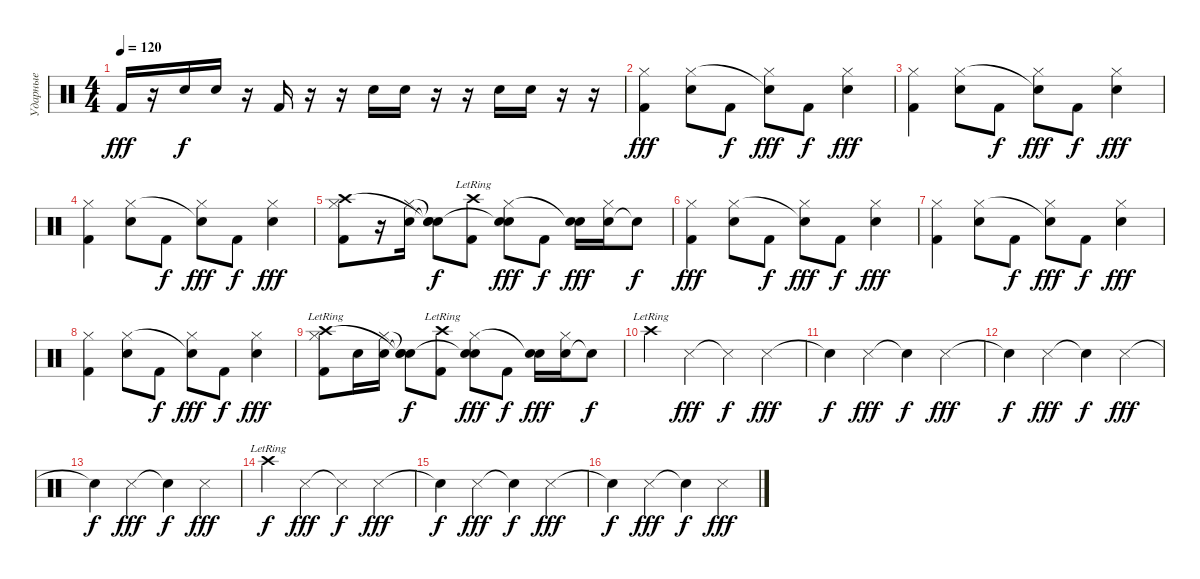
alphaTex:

\track ("Ударные" "Ударные") {instrument percussion}
\staff {score}
\articulation defaults
\ts (4 4)
\tempo 120
\clef neutral
\ks c "Kick (hit) 2".16{dy fff}
r.16 "Electric Snare (hit)".16{dy f} "Snare (hit) 2".16 r.16 "Kick (hit) 2".16 r.16 r.16 "Electric Snare (hit)".16 "Snare (hit) 2".16 r.16 r.16 "Electric Snare (hit)".16 "Snare (hit) 2".16 r.16 r.16 |
("Hi-Hat (closed)" "Kick (hit) 2").4{dy fff} ("Snare (hit) 2" "Hi-Hat (closed)").8 "Kick (hit) 2".8{dy f} ("Hi-Hat (closed)" "Snare (hit)"{t}).8{dy fff} "Kick (hit) 2".8{dy f} ("Snare (hit) 2" "Hi-Hat (closed)").4{dy fff} |
("Hi-Hat (closed)" "Kick (hit) 2").4 ("Snare (hit) 2" "Hi-Hat (closed)").8 "Kick (hit) 2".8{dy f} ("Hi-Hat (closed)" "Snare (hit)"{t}).8{dy fff} "Kick (hit) 2".8{dy f} ("Snare (hit) 2" "Hi-Hat (closed)").4{dy fff} |
("Hi-Hat (closed)" "Kick (hit) 2").4 ("Snare (hit) 2" "Hi-Hat (closed)").8 "Kick (hit) 2".8{dy f} ("Hi-Hat (closed)" "Snare (hit)"{t}).8{dy fff} "Kick (hit) 2".8{dy f} ("Snare (hit) 2" "Hi-Hat (closed)").4{dy fff} |
("Hi-Hat (closed)" "Kick (hit) 2" "Crash high (hit)").8 r.16 ("Snare (hit) 2" "Hi-Hat (closed)").16 ("Snare (hit)"{t} "Snare (hit)"{t} "Snare (hit)"{t}).8{dy f} ("Kick (hit) 2" "Crash high (hit)"{lr}).8 ("Snare (hit) 2" "Hi-Hat (closed)" "Snare (hit)"{t}).8{dy fff} "Kick (hit) 2".8{dy f} ("Snare (hit) 2" "Snare (hit)"{t}).16{dy fff} ("Snare (hit) 2" "Hi-Hat (closed)").16 "Snare (hit)"{t}.8{dy f} |
("Hi-Hat (closed)" "Kick (hit) 2").4{dy fff} ("Snare (hit) 2" "Hi-Hat (closed)").8 "Kick (hit) 2".8{dy f} ("Hi-Hat (closed)" "Snare (hit)"{t}).8{dy fff} "Kick (hit) 2".8{dy f} ("Snare (hit) 2" "Hi-Hat (closed)").4{dy fff} |
("Hi-Hat (closed)" "Kick (hit) 2").4 ("Snare (hit) 2" "Hi-Hat (closed)").8 "Kick (hit) 2".8{dy f} ("Hi-Hat (closed)" "Snare (hit)"{t}).8{dy fff} "Kick (hit) 2".8{dy f} ("Snare (hit) 2" "Hi-Hat (closed)").4{dy fff} |
("Hi-Hat (closed)" "Kick (hit) 2").4 ("Snare (hit) 2" "Hi-Hat (closed)").8 "Kick (hit) 2".8{dy f} ("Hi-Hat (closed)" "Snare (hit)"{t}).8{dy fff} "Kick (hit) 2".8{dy f} ("Snare (hit) 2" "Hi-Hat (closed)").4{dy fff} |
("Hi-Hat (closed)" "Kick (hit) 2" "Crash high (hit)"{lr}).8 "Snare (hit) 2".16 ("Snare (hit) 2" "Hi-Hat (closed)").16 ("Snare (hit)"{t} "Snare (hit)"{t} "Snare (hit)"{t}).8{dy f} ("Kick (hit) 2" "Crash high (hit)"{lr}).8 ("Snare (hit) 2" "Hi-Hat (closed)" "Snare (hit)"{t}).8{dy fff} "Kick (hit) 2".8{dy f} ("Snare (hit) 2" "Snare (hit)"{t}).16{dy fff} ("Snare (hit) 2" "Hi-Hat (closed)").16 "Snare (hit)"{t}.8{dy f} |
"Crash high (hit)"{lr}.4 "Snare (side stick) 3".4{dy fff} "Snare (side stick) 3"{t}.4{dy f} "Snare (side stick) 3".4{dy fff} |
"Snare (hit)"{t}.4{dy f} "Snare (side stick) 3".4{dy fff} "Snare (hit)"{t}.4{dy f} "Snare (side stick) 3".4{dy fff} |
"Snare (hit)"{t}.4{dy f} "Snare (side stick) 3".4{dy fff} "Snare (hit)"{t}.4{dy f} "Snare (side stick) 3".4{dy fff} |
"Snare (hit)"{t}.4{dy f} "Snare (side stick) 3".4{dy fff} "Snare (hit)"{t}.4{dy f} "Snare (side stick) 3".4{dy fff} |
"Crash high (hit)"{lr}.4{dy f} "Snare (side stick) 3".4{dy fff} "Snare (side stick) 3"{t}.4{dy f} "Snare (side stick) 3".4{dy fff} |
"Snare (hit)"{t}.4{dy f} "Snare (side stick) 3".4{dy fff} "Snare (hit)"{t}.4{dy f} "Snare (side stick) 3".4{dy fff} |
"Snare (hit)"{t}.4{dy f} "Snare (side stick) 3".4{dy fff} "Snare (hit)"{t}.4{dy f} "Snare (side stick) 3".4{dy fff}
